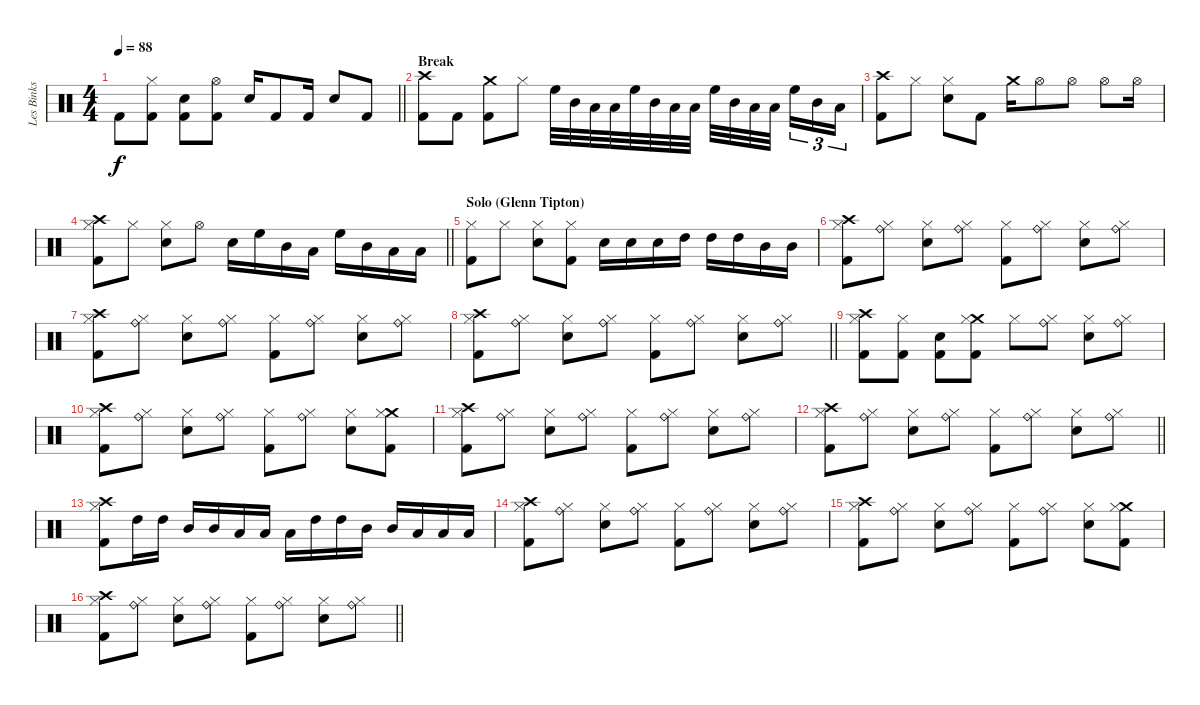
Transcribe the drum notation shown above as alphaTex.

\track ("Les Binks" "Les Binks") {instrument percussion}
\staff {score}
\articulation defaults
\ts (4 4)
\tempo 88
\clef neutral
\barLineRight lightlight
\ks c "Kick (hit) 2".8{dy f}
("Hi-Hat (closed)" "Kick (hit) 2").8 ("Snare (hit) 2" "Kick (hit) 2").8 ("Hi-Hat (open)" "Kick (hit) 2").8 "Snare (hit) 2".16 "Kick (hit) 2".8 "Kick (hit) 2".16 "Snare (hit) 2".8 "Kick (hit) 2".8 |
\section ("" "Break")
("Crash high (hit)" "Kick (hit) 2").8 "Kick (hit) 2".8 ("Crash medium (hit)" "Kick (hit) 2").8 "Hi-Hat (closed)".8 "High Floor Tom (hit)".32 "Mid Tom (hit)".32 "Low Tom (hit)".32 "Low Floor Tom (hit)".32 "High Floor Tom (hit)".32 "Mid Tom (hit)".32 "Low Tom (hit)".32 "Low Floor Tom (hit)".32 "High Floor Tom (hit)".32 "Mid Tom (hit)".32 "Low Tom (hit)".32 "Low Floor Tom (hit)".32{beam splitsecondary} "High Floor Tom (hit)".16{tu (3 2)} "Mid Tom (hit)".16{tu (3 2)} "Low Tom (hit)".16{tu (3 2)} |
("Crash high (hit)" "Kick (hit) 2").8 "Hi-Hat (closed)".8 ("Hi-Hat (closed)" "Snare (hit) 2").8 "Kick (hit) 2".8 "Crash medium (hit)".16 "Hi-Hat (open)".8 "Hi-Hat (open)".8 "Hi-Hat (open)".8 "Hi-Hat (open)".16 |
\barLineRight lightlight
("Crash high (hit)" "Hi-Hat (closed)" "Kick (hit) 2").8 "Hi-Hat (closed)".8 ("Hi-Hat (closed)" "Snare (hit) 2").8 "Hi-Hat (open)".8 "Snare (hit) 2".16 "High Floor Tom (hit)".16 "Mid Tom (hit)".16 "Low Tom (hit)".16 "High Floor Tom (hit)".16 "Mid Tom (hit)".16 "Low Tom (hit)".16 "Low Floor Tom (hit)".16 |
\section ("" "Solo (Glenn Tipton)")
("Hi-Hat (closed)" "Kick (hit) 2").8 "Hi-Hat (closed)".8 ("Hi-Hat (closed)" "Snare (hit) 2").8 ("Hi-Hat (closed)" "Kick (hit) 2").8 "Snare (hit) 2".16 "Snare (hit) 2".16 "Snare (hit) 2".16 "High Tom (hit)".16 "High Tom (hit)".16 "High Tom (hit)".16 "Mid Tom (hit)".16 "Mid Tom (hit)".16 |
("Crash high (hit)" "Hi-Hat (closed)" "Kick (hit) 2").8 ("Ride (bell)" "Hi-Hat (closed)").8 ("Hi-Hat (closed)" "Snare (hit) 2").8 ("Ride (bell)" "Hi-Hat (closed)").8 ("Hi-Hat (closed)" "Kick (hit) 2").8 ("Ride (bell)" "Hi-Hat (closed)").8 ("Hi-Hat (closed)" "Snare (hit) 2").8 ("Ride (bell)" "Hi-Hat (closed)").8 |
("Crash high (hit)" "Hi-Hat (closed)" "Kick (hit) 2").8 ("Ride (bell)" "Hi-Hat (closed)").8 ("Hi-Hat (closed)" "Snare (hit) 2").8 ("Ride (bell)" "Hi-Hat (closed)").8 ("Hi-Hat (closed)" "Kick (hit) 2").8 ("Ride (bell)" "Hi-Hat (closed)").8 ("Hi-Hat (closed)" "Snare (hit) 2").8 ("Ride (bell)" "Hi-Hat (closed)").8 |
\barLineRight lightlight
("Crash high (hit)" "Hi-Hat (closed)" "Kick (hit) 2").8 ("Ride (bell)" "Hi-Hat (closed)").8 ("Hi-Hat (closed)" "Snare (hit) 2").8 ("Ride (bell)" "Hi-Hat (closed)").8 ("Hi-Hat (closed)" "Kick (hit) 2").8 ("Ride (bell)" "Hi-Hat (closed)").8 ("Hi-Hat (closed)" "Snare (hit) 2").8 ("Ride (bell)" "Hi-Hat (closed)").8 |
("Crash high (hit)" "Hi-Hat (closed)" "Kick (hit) 2").8 ("Hi-Hat (closed)" "Kick (hit) 2").8 ("Snare (hit) 2" "Kick (hit) 2").8 ("Crash medium (hit)" "Hi-Hat (closed)" "Kick (hit) 2").8 "Hi-Hat (closed)".8 ("Ride (bell)" "Hi-Hat (closed)").8 ("Hi-Hat (closed)" "Snare (hit) 2").8 ("Ride (bell)" "Hi-Hat (closed)").8 |
("Crash high (hit)" "Hi-Hat (closed)" "Kick (hit) 2").8 ("Ride (bell)" "Hi-Hat (closed)").8 ("Hi-Hat (closed)" "Snare (hit) 2").8 ("Ride (bell)" "Hi-Hat (closed)").8 ("Hi-Hat (closed)" "Kick (hit) 2").8 ("Ride (bell)" "Hi-Hat (closed)").8 ("Hi-Hat (closed)" "Snare (hit) 2").8 ("Crash medium (hit)" "Hi-Hat (closed)" "Kick (hit) 2").8 |
("Crash high (hit)" "Hi-Hat (closed)" "Kick (hit) 2").8 ("Ride (bell)" "Hi-Hat (closed)").8 ("Hi-Hat (closed)" "Snare (hit) 2").8 ("Ride (bell)" "Hi-Hat (closed)").8 ("Hi-Hat (closed)" "Kick (hit) 2").8 ("Ride (bell)" "Hi-Hat (closed)").8 ("Hi-Hat (closed)" "Snare (hit) 2").8 ("Ride (bell)" "Hi-Hat (closed)").8 |
\barLineRight lightlight
("Crash high (hit)" "Hi-Hat (closed)" "Kick (hit) 2").8 ("Ride (bell)" "Hi-Hat (closed)").8 ("Hi-Hat (closed)" "Snare (hit) 2").8 ("Ride (bell)" "Hi-Hat (closed)").8 ("Hi-Hat (closed)" "Kick (hit) 2").8 ("Ride (bell)" "Hi-Hat (closed)").8 ("Hi-Hat (closed)" "Snare (hit) 2").8 ("Ride (bell)" "Hi-Hat (closed)").8 |
("Crash high (hit)" "Hi-Hat (closed)" "Kick (hit) 2").8 "High Tom (hit)".16 "High Tom (hit)".16 "Mid Tom (hit)".16 "Mid Tom (hit)".16 "Low Tom (hit)".16 "Low Tom (hit)".16 "Low Floor Tom (hit)".16 "High Tom (hit)".16 "High Tom (hit)".16 "Mid Tom (hit)".16 "Mid Tom (hit)".16 "Low Tom (hit)".16 "Low Tom (hit)".16 "Low Floor Tom (hit)".16 |
("Crash high (hit)" "Hi-Hat (closed)" "Kick (hit) 2").8 ("Ride (bell)" "Hi-Hat (closed)").8 ("Hi-Hat (closed)" "Snare (hit) 2").8 ("Ride (bell)" "Hi-Hat (closed)").8 ("Hi-Hat (closed)" "Kick (hit) 2").8 ("Ride (bell)" "Hi-Hat (closed)").8 ("Hi-Hat (closed)" "Snare (hit) 2").8 ("Ride (bell)" "Hi-Hat (closed)").8 |
("Crash high (hit)" "Hi-Hat (closed)" "Kick (hit) 2").8 ("Ride (bell)" "Hi-Hat (closed)").8 ("Hi-Hat (closed)" "Snare (hit) 2").8 ("Ride (bell)" "Hi-Hat (closed)").8 ("Hi-Hat (closed)" "Kick (hit) 2").8 ("Ride (bell)" "Hi-Hat (closed)").8 ("Hi-Hat (closed)" "Snare (hit) 2").8 ("Crash medium (hit)" "Hi-Hat (closed)" "Kick (hit) 2").8 |
\barLineRight lightlight
("Crash high (hit)" "Hi-Hat (closed)" "Kick (hit) 2").8 ("Ride (bell)" "Hi-Hat (closed)").8 ("Hi-Hat (closed)" "Snare (hit) 2").8 ("Ride (bell)" "Hi-Hat (closed)").8 ("Hi-Hat (closed)" "Kick (hit) 2").8 ("Ride (bell)" "Hi-Hat (closed)").8 ("Hi-Hat (closed)" "Snare (hit) 2").8 ("Ride (bell)" "Hi-Hat (closed)").8
